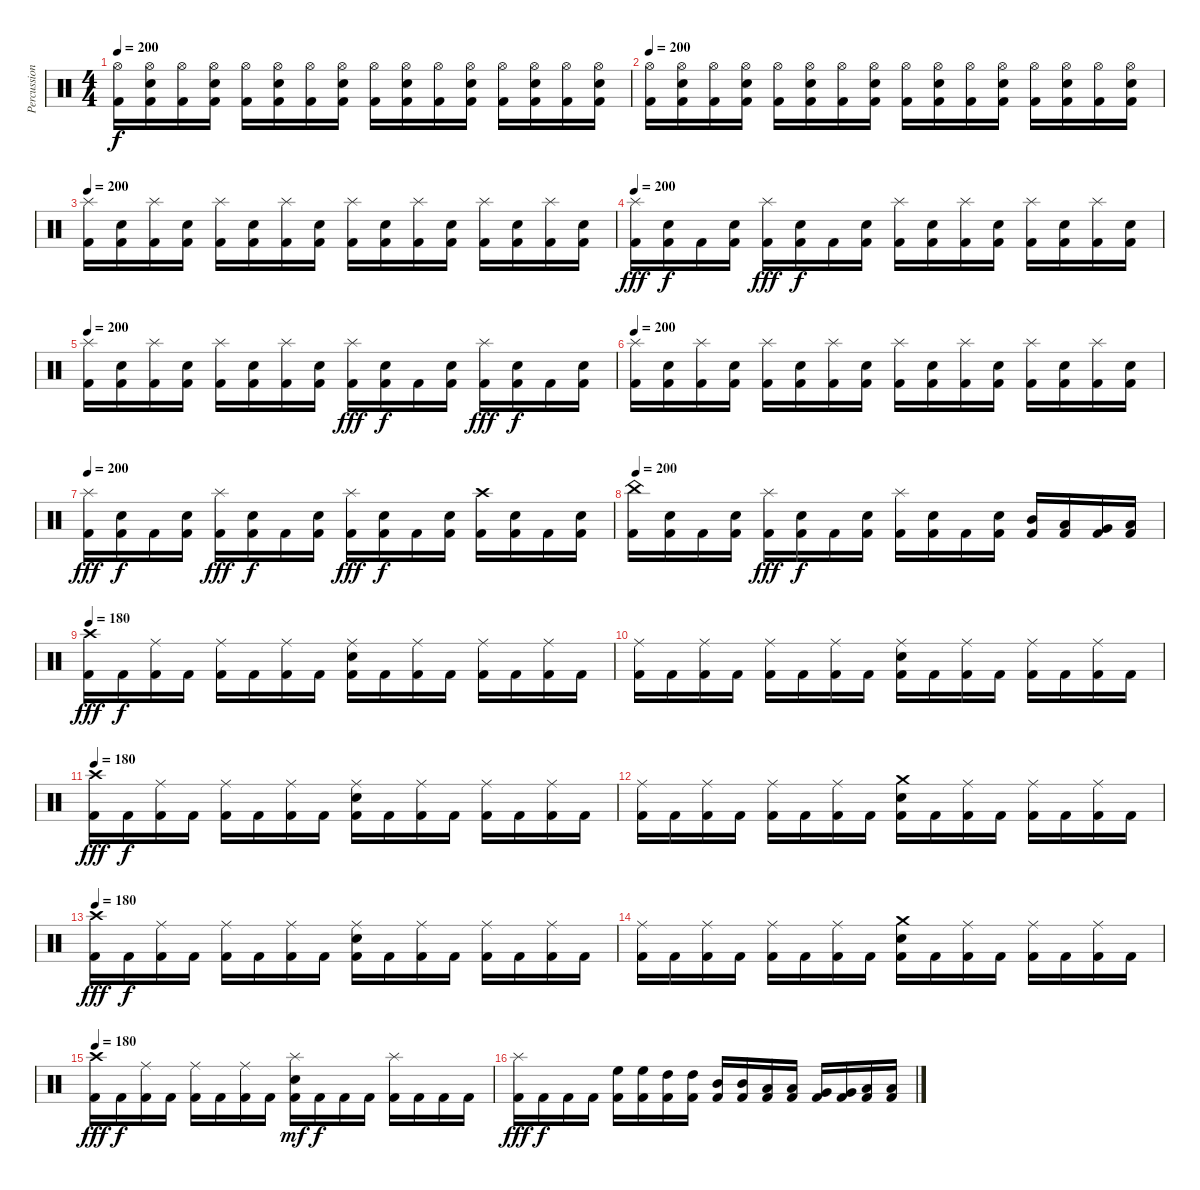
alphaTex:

\track ("Percussion" "Percussion") {instrument percussion}
\staff {score}
\articulation defaults
\ts (4 4)
\tempo 200
\clef neutral
\ks c
("Hi-Hat (open)" "Kick (hit) 2").16{dy f} ("Hi-Hat (open)" "Electric Snare (hit)" "Kick (hit) 2").16 ("Hi-Hat (open)" "Kick (hit) 2").16 ("Hi-Hat (open)" "Electric Snare (hit)" "Kick (hit) 2").16 ("Hi-Hat (open)" "Kick (hit) 2").16 ("Hi-Hat (open)" "Electric Snare (hit)" "Kick (hit) 2").16 ("Hi-Hat (open)" "Kick (hit) 2").16 ("Hi-Hat (open)" "Electric Snare (hit)" "Kick (hit) 2").16 ("Hi-Hat (open)" "Kick (hit) 2").16 ("Hi-Hat (open)" "Electric Snare (hit)" "Kick (hit) 2").16 ("Hi-Hat (open)" "Kick (hit) 2").16 ("Hi-Hat (open)" "Electric Snare (hit)" "Kick (hit) 2").16 ("Hi-Hat (open)" "Kick (hit) 2").16 ("Hi-Hat (open)" "Electric Snare (hit)" "Kick (hit) 2").16 ("Hi-Hat (open)" "Kick (hit) 2").16 ("Hi-Hat (open)" "Electric Snare (hit)" "Kick (hit) 2").16 |
\tempo 200
("Hi-Hat (open)" "Kick (hit) 2").16 ("Hi-Hat (open)" "Electric Snare (hit)" "Kick (hit) 2").16 ("Hi-Hat (open)" "Kick (hit) 2").16 ("Hi-Hat (open)" "Electric Snare (hit)" "Kick (hit) 2").16 ("Hi-Hat (open)" "Kick (hit) 2").16 ("Hi-Hat (open)" "Electric Snare (hit)" "Kick (hit) 2").16 ("Hi-Hat (open)" "Kick (hit) 2").16 ("Hi-Hat (open)" "Electric Snare (hit)" "Kick (hit) 2").16 ("Hi-Hat (open)" "Kick (hit) 2").16 ("Hi-Hat (open)" "Electric Snare (hit)" "Kick (hit) 2").16 ("Hi-Hat (open)" "Kick (hit) 2").16 ("Hi-Hat (open)" "Electric Snare (hit)" "Kick (hit) 2").16 ("Hi-Hat (open)" "Kick (hit) 2").16 ("Hi-Hat (open)" "Electric Snare (hit)" "Kick (hit) 2").16 ("Hi-Hat (open)" "Kick (hit) 2").16 ("Hi-Hat (open)" "Electric Snare (hit)" "Kick (hit) 2").16 |
\tempo 200
("Splash (hit)" "Kick (hit) 2").16 ("Electric Snare (hit)" "Kick (hit) 2").16 ("Splash (hit)" "Kick (hit) 2").16 ("Electric Snare (hit)" "Kick (hit) 2").16 ("Splash (hit)" "Kick (hit) 2").16 ("Electric Snare (hit)" "Kick (hit) 2").16 ("Splash (hit)" "Kick (hit) 2").16 ("Electric Snare (hit)" "Kick (hit) 2").16 ("Splash (hit)" "Kick (hit) 2").16 ("Electric Snare (hit)" "Kick (hit) 2").16 ("Splash (hit)" "Kick (hit) 2").16 ("Electric Snare (hit)" "Kick (hit) 2").16 ("Splash (hit)" "Kick (hit) 2").16 ("Electric Snare (hit)" "Kick (hit) 2").16 ("Splash (hit)" "Kick (hit) 2").16 ("Electric Snare (hit)" "Kick (hit) 2").16 |
\tempo 200
("Splash (hit)" "Kick (hit) 2").16{dy fff} ("Electric Snare (hit)" "Kick (hit) 2").16{dy f} "Kick (hit) 2".16 ("Electric Snare (hit)" "Kick (hit) 2").16 ("Splash (hit)" "Kick (hit) 2").16{dy fff} ("Electric Snare (hit)" "Kick (hit) 2").16{dy f} "Kick (hit) 2".16 ("Electric Snare (hit)" "Kick (hit) 2").16 ("Splash (hit)" "Kick (hit) 2").16 ("Electric Snare (hit)" "Kick (hit) 2").16 ("Splash (hit)" "Kick (hit) 2").16 ("Electric Snare (hit)" "Kick (hit) 2").16 ("Splash (hit)" "Kick (hit) 2").16 ("Electric Snare (hit)" "Kick (hit) 2").16 ("Splash (hit)" "Kick (hit) 2").16 ("Electric Snare (hit)" "Kick (hit) 2").16 |
\tempo 200
("Splash (hit)" "Kick (hit) 2").16 ("Electric Snare (hit)" "Kick (hit) 2").16 ("Splash (hit)" "Kick (hit) 2").16 ("Electric Snare (hit)" "Kick (hit) 2").16 ("Splash (hit)" "Kick (hit) 2").16 ("Electric Snare (hit)" "Kick (hit) 2").16 ("Splash (hit)" "Kick (hit) 2").16 ("Electric Snare (hit)" "Kick (hit) 2").16 ("Splash (hit)" "Kick (hit) 2").16{dy fff} ("Electric Snare (hit)" "Kick (hit) 2").16{dy f} "Kick (hit) 2".16 ("Electric Snare (hit)" "Kick (hit) 2").16 ("Splash (hit)" "Kick (hit) 2").16{dy fff} ("Electric Snare (hit)" "Kick (hit) 2").16{dy f} "Kick (hit) 2".16 ("Electric Snare (hit)" "Kick (hit) 2").16 |
\tempo 200
("Splash (hit)" "Kick (hit) 2").16 ("Electric Snare (hit)" "Kick (hit) 2").16 ("Splash (hit)" "Kick (hit) 2").16 ("Electric Snare (hit)" "Kick (hit) 2").16 ("Splash (hit)" "Kick (hit) 2").16 ("Electric Snare (hit)" "Kick (hit) 2").16 ("Splash (hit)" "Kick (hit) 2").16 ("Electric Snare (hit)" "Kick (hit) 2").16 ("Splash (hit)" "Kick (hit) 2").16 ("Electric Snare (hit)" "Kick (hit) 2").16 ("Splash (hit)" "Kick (hit) 2").16 ("Electric Snare (hit)" "Kick (hit) 2").16 ("Splash (hit)" "Kick (hit) 2").16 ("Electric Snare (hit)" "Kick (hit) 2").16 ("Splash (hit)" "Kick (hit) 2").16 ("Electric Snare (hit)" "Kick (hit) 2").16 |
\tempo 200
("Splash (hit)" "Kick (hit) 2").16{dy fff} ("Electric Snare (hit)" "Kick (hit) 2").16{dy f} "Kick (hit) 2".16 ("Electric Snare (hit)" "Kick (hit) 2").16 ("Splash (hit)" "Kick (hit) 2").16{dy fff} ("Electric Snare (hit)" "Kick (hit) 2").16{dy f} "Kick (hit) 2".16 ("Electric Snare (hit)" "Kick (hit) 2").16 ("Splash (hit)" "Kick (hit) 2").16{dy fff} ("Electric Snare (hit)" "Kick (hit) 2").16{dy f} "Kick (hit) 2".16 ("Electric Snare (hit)" "Kick (hit) 2").16 ("Crash high (hit)" "Kick (hit) 2").16 ("Electric Snare (hit)" "Kick (hit) 2").16 "Kick (hit) 2".16 ("Electric Snare (hit)" "Kick (hit) 2").16 |
\tempo 200
("China (hit)" "Kick (hit) 2").16 ("Electric Snare (hit)" "Kick (hit) 2").16 "Kick (hit) 2".16 ("Electric Snare (hit)" "Kick (hit) 2").16 ("Splash (hit)" "Kick (hit) 2").16{dy fff} ("Electric Snare (hit)" "Kick (hit) 2").16{dy f} "Kick (hit) 2".16 ("Electric Snare (hit)" "Kick (hit) 2").16 ("Splash (hit)" "Kick (hit) 2").16 ("Electric Snare (hit)" "Kick (hit) 2").16 "Kick (hit) 2".16 ("Electric Snare (hit)" "Kick (hit) 2").16 ("Mid Tom (hit)" "Kick (hit) 2").16 ("Low Tom (hit)" "Kick (hit) 2").16 ("Very Low Tom (hit)" "Kick (hit) 2").16 ("Low Floor Tom (hit)" "Kick (hit) 2").16 |
\tempo 180
("Crash high (hit)" "Kick (hit) 2").16{dy fff} "Kick (hit) 2".16{dy f} ("Ride (middle)" "Kick (hit) 2").16 "Kick (hit) 2".16 ("Ride (middle)" "Kick (hit) 2").16 "Kick (hit) 2".16 ("Ride (middle)" "Kick (hit) 2").16 "Kick (hit) 2".16 ("Ride (middle)" "Electric Snare (hit)" "Kick (hit) 2").16 "Kick (hit) 2".16 ("Ride (middle)" "Kick (hit) 2").16 "Kick (hit) 2".16 ("Ride (middle)" "Kick (hit) 2").16 "Kick (hit) 2".16 ("Ride (middle)" "Kick (hit) 2").16 "Kick (hit) 2".16 |
("Ride (middle)" "Kick (hit) 2").16 "Kick (hit) 2".16 ("Ride (middle)" "Kick (hit) 2").16 "Kick (hit) 2".16 ("Ride (middle)" "Kick (hit) 2").16 "Kick (hit) 2".16 ("Ride (middle)" "Kick (hit) 2").16 "Kick (hit) 2".16 ("Ride (middle)" "Electric Snare (hit)" "Kick (hit) 2").16 "Kick (hit) 2".16 ("Ride (middle)" "Kick (hit) 2").16 "Kick (hit) 2".16 ("Ride (middle)" "Kick (hit) 2").16 "Kick (hit) 2".16 ("Ride (middle)" "Kick (hit) 2").16 "Kick (hit) 2".16 |
\tempo 180
("Crash high (hit)" "Kick (hit) 2").16{dy fff} "Kick (hit) 2".16{dy f} ("Ride (middle)" "Kick (hit) 2").16 "Kick (hit) 2".16 ("Ride (middle)" "Kick (hit) 2").16 "Kick (hit) 2".16 ("Ride (middle)" "Kick (hit) 2").16 "Kick (hit) 2".16 ("Ride (middle)" "Electric Snare (hit)" "Kick (hit) 2").16 "Kick (hit) 2".16 ("Ride (middle)" "Kick (hit) 2").16 "Kick (hit) 2".16 ("Ride (middle)" "Kick (hit) 2").16 "Kick (hit) 2".16 ("Ride (middle)" "Kick (hit) 2").16 "Kick (hit) 2".16 |
("Ride (middle)" "Kick (hit) 2").16 "Kick (hit) 2".16 ("Ride (middle)" "Kick (hit) 2").16 "Kick (hit) 2".16 ("Ride (middle)" "Kick (hit) 2").16 "Kick (hit) 2".16 ("Ride (middle)" "Kick (hit) 2").16 "Kick (hit) 2".16 ("Crash medium (hit)" "Electric Snare (hit)" "Kick (hit) 2").16 "Kick (hit) 2".16 ("Ride (middle)" "Kick (hit) 2").16 "Kick (hit) 2".16 ("Ride (middle)" "Kick (hit) 2").16 "Kick (hit) 2".16 ("Ride (middle)" "Kick (hit) 2").16 "Kick (hit) 2".16 |
\tempo 180
("Crash high (hit)" "Kick (hit) 2").16{dy fff} "Kick (hit) 2".16{dy f} ("Ride (middle)" "Kick (hit) 2").16 "Kick (hit) 2".16 ("Ride (middle)" "Kick (hit) 2").16 "Kick (hit) 2".16 ("Ride (middle)" "Kick (hit) 2").16 "Kick (hit) 2".16 ("Ride (middle)" "Electric Snare (hit)" "Kick (hit) 2").16 "Kick (hit) 2".16 ("Ride (middle)" "Kick (hit) 2").16 "Kick (hit) 2".16 ("Ride (middle)" "Kick (hit) 2").16 "Kick (hit) 2".16 ("Ride (middle)" "Kick (hit) 2").16 "Kick (hit) 2".16 |
("Ride (middle)" "Kick (hit) 2").16 "Kick (hit) 2".16 ("Ride (middle)" "Kick (hit) 2").16 "Kick (hit) 2".16 ("Ride (middle)" "Kick (hit) 2").16 "Kick (hit) 2".16 ("Ride (middle)" "Kick (hit) 2").16 "Kick (hit) 2".16 ("Crash medium (hit)" "Electric Snare (hit)" "Kick (hit) 2").16 "Kick (hit) 2".16 ("Ride (middle)" "Kick (hit) 2").16 "Kick (hit) 2".16 ("Ride (middle)" "Kick (hit) 2").16 "Kick (hit) 2".16 ("Ride (middle)" "Kick (hit) 2").16 "Kick (hit) 2".16 |
\tempo 180
("Crash high (hit)" "Kick (hit) 2").16{dy fff} "Kick (hit) 2".16{dy f} ("Ride (middle)" "Kick (hit) 2").16 "Kick (hit) 2".16 ("Ride (middle)" "Kick (hit) 2").16 "Kick (hit) 2".16 ("Ride (middle)" "Kick (hit) 2").16 "Kick (hit) 2".16 ("Splash (hit)" "Electric Snare (hit)" "Kick (hit) 2").16{dy mf} "Kick (hit) 2".16{dy f} "Kick (hit) 2".16 "Kick (hit) 2".16 ("Splash (hit)" "Kick (hit) 2").16 "Kick (hit) 2".16 "Kick (hit) 2".16 "Kick (hit) 2".16 |
("Splash (hit)" "Kick (hit) 2").16{dy fff} "Kick (hit) 2".16{dy f} "Kick (hit) 2".16 "Kick (hit) 2".16 ("High Floor Tom (hit)" "Kick (hit) 2").16 ("High Floor Tom (hit)" "Kick (hit) 2").16 ("High Tom (hit)" "Kick (hit) 2").16 ("High Tom (hit)" "Kick (hit) 2").16 ("Mid Tom (hit)" "Kick (hit) 2").16 ("Mid Tom (hit)" "Kick (hit) 2").16 ("Low Tom (hit)" "Kick (hit) 2").16 ("Low Tom (hit)" "Kick (hit) 2").16 ("Very Low Tom (hit)" "Kick (hit) 2").16 ("Very Low Tom (hit)" "Kick (hit) 2").16 ("Low Floor Tom (hit)" "Kick (hit) 2").16 ("Low Floor Tom (hit)" "Kick (hit) 2").16
